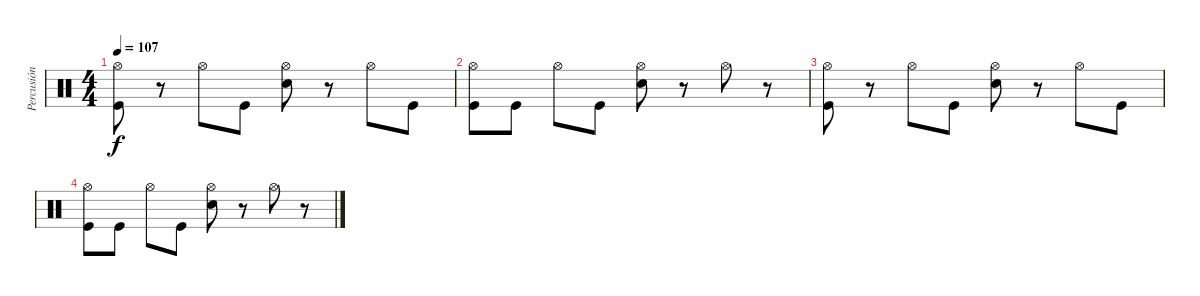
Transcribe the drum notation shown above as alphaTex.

\track ("Percusión" "Percusión") {instrument percussion}
\staff {score}
\articulation defaults
\ts (4 4)
\tempo 107
\clef neutral
\ks c
("Hi-Hat (open)" "Kick (hit)").8{dy f} r.8 "Hi-Hat (open)".8 "Kick (hit)".8 ("Hi-Hat (open)" "Snare (hit) 2").8 r.8 "Hi-Hat (open)".8 "Kick (hit)".8 |
("Hi-Hat (open)" "Kick (hit)").8 "Kick (hit)".8 "Hi-Hat (open)".8 "Kick (hit)".8 ("Hi-Hat (open)" "Snare (hit) 2").8 r.8 "Hi-Hat (open)".8 r.8 |
("Hi-Hat (open)" "Kick (hit)").8 r.8 "Hi-Hat (open)".8 "Kick (hit)".8 ("Hi-Hat (open)" "Snare (hit) 2").8 r.8 "Hi-Hat (open)".8 "Kick (hit)".8 |
("Hi-Hat (open)" "Kick (hit)").8 "Kick (hit)".8 "Hi-Hat (open)".8 "Kick (hit)".8 ("Hi-Hat (open)" "Snare (hit) 2").8 r.8 "Hi-Hat (open)".8 r.8
